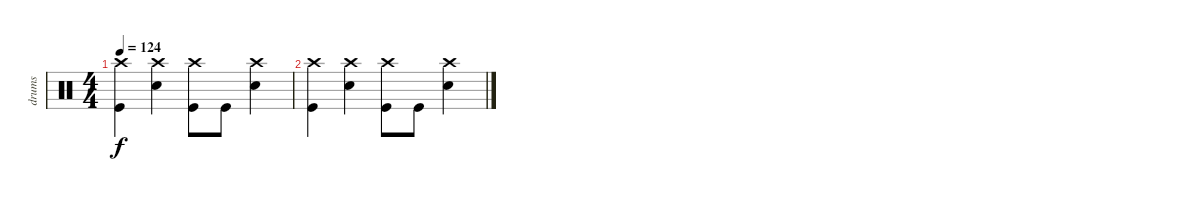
\track ("drums" "drums") {instrument percussion}
\staff {score}
\articulation defaults
\ts (4 4)
\tempo 124
\clef neutral
\ks c
("Crash high (hit)" "Kick (hit)").4{dy f} ("Crash high (hit)" "Snare (hit) 2").4 ("Crash high (hit)" "Kick (hit)").8 "Kick (hit)".8 ("Crash high (hit)" "Snare (hit) 2").4 |
("Crash high (hit)" "Kick (hit)").4 ("Crash high (hit)" "Snare (hit) 2").4 ("Crash high (hit)" "Kick (hit)").8 "Kick (hit)".8 ("Crash high (hit)" "Snare (hit) 2").4
